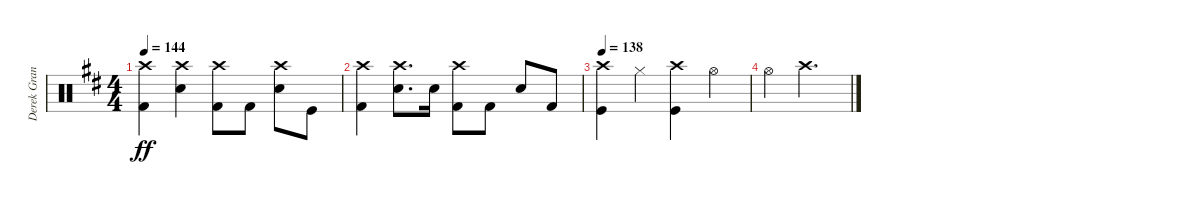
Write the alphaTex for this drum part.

\track ("Derek Grant - Drums" "Derek Gran") {instrument percussion}
\staff {score}
\articulation defaults
\ts (4 4)
\tempo 144
\clef neutral
\ks d
("Crash high (hit)" "Kick (hit) 2").4{dy ff} ("Snare (hit) 2" "Crash high (hit)").4 ("Kick (hit) 2" "Crash high (hit)").8 "Kick (hit) 2".8 ("Snare (hit) 2" "Crash high (hit)").8 "Kick (hit)".8 |
("Crash high (hit)" "Kick (hit) 2").4 ("Crash high (hit)" "Snare (hit) 2").8{d} "Snare (hit) 2".16 ("Crash high (hit)" "Kick (hit) 2").8 "Kick (hit) 2".8 "Snare (hit) 2".8 "Kick (hit) 2".8 |
\tempo 138
("Crash high (hit)" "Kick (hit)").4 "Hi-Hat (closed)".4 ("Kick (hit)" "Crash high (hit)").4 "Hi-Hat (open)".4 |
"Hi-Hat (open)".4 "Crash high (hit)".2{d}
